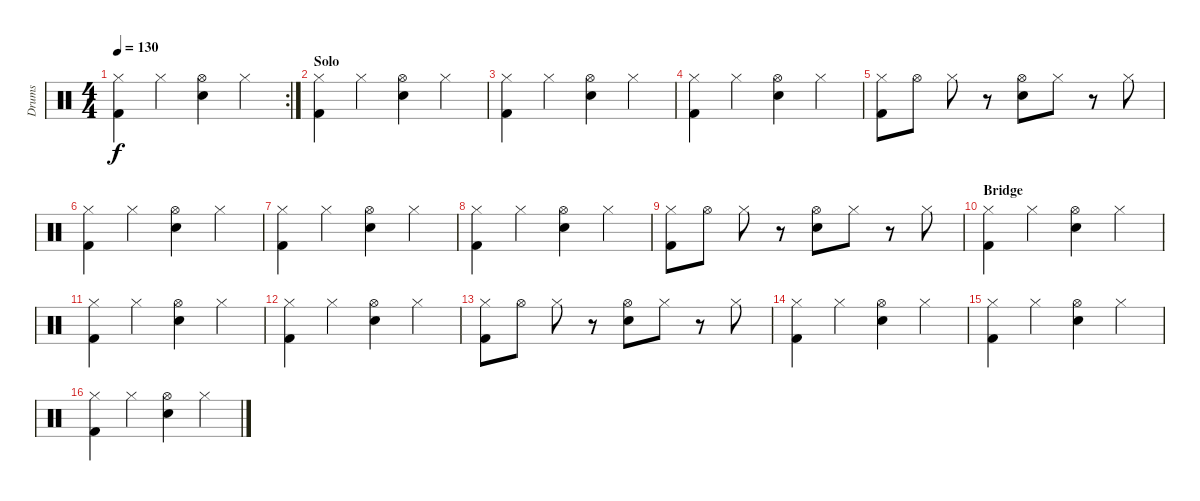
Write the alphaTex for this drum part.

\track ("Drums" "Drums") {instrument percussion}
\staff {score}
\articulation defaults
\rc 2
\ts (4 4)
\tempo 130
\clef neutral
\ks c
("Kick (hit) 2" "Hi-Hat (closed)").4{dy f} "Hi-Hat (closed)".4 ("Hi-Hat (open)" "Snare (hit) 2").4 "Hi-Hat (closed)".4 |
\section ("" "Solo")
("Kick (hit) 2" "Hi-Hat (closed)").4 "Hi-Hat (closed)".4 ("Hi-Hat (open)" "Snare (hit) 2").4 "Hi-Hat (closed)".4 |
("Kick (hit) 2" "Hi-Hat (closed)").4 "Hi-Hat (closed)".4 ("Hi-Hat (open)" "Snare (hit) 2").4 "Hi-Hat (closed)".4 |
("Kick (hit) 2" "Hi-Hat (closed)").4 "Hi-Hat (closed)".4 ("Hi-Hat (open)" "Snare (hit) 2").4 "Hi-Hat (closed)".4 |
("Kick (hit) 2" "Hi-Hat (closed)").8 "Hi-Hat (open)".8 "Hi-Hat (closed)".8 r.8 ("Hi-Hat (open)" "Snare (hit) 2").8 "Hi-Hat (closed)".8 r.8 "Hi-Hat (closed)".8 |
("Kick (hit) 2" "Hi-Hat (closed)").4 "Hi-Hat (closed)".4 ("Hi-Hat (open)" "Snare (hit) 2").4 "Hi-Hat (closed)".4 |
("Kick (hit) 2" "Hi-Hat (closed)").4 "Hi-Hat (closed)".4 ("Hi-Hat (open)" "Snare (hit) 2").4 "Hi-Hat (closed)".4 |
("Kick (hit) 2" "Hi-Hat (closed)").4 "Hi-Hat (closed)".4 ("Hi-Hat (open)" "Snare (hit) 2").4 "Hi-Hat (closed)".4 |
("Kick (hit) 2" "Hi-Hat (closed)").8 "Hi-Hat (open)".8 "Hi-Hat (closed)".8 r.8 ("Hi-Hat (open)" "Snare (hit) 2").8 "Hi-Hat (closed)".8 r.8 "Hi-Hat (closed)".8 |
\section ("" "Bridge")
("Kick (hit) 2" "Hi-Hat (closed)").4 "Hi-Hat (closed)".4 ("Hi-Hat (open)" "Snare (hit) 2").4 "Hi-Hat (closed)".4 |
("Kick (hit) 2" "Hi-Hat (closed)").4 "Hi-Hat (closed)".4 ("Hi-Hat (open)" "Snare (hit) 2").4 "Hi-Hat (closed)".4 |
("Kick (hit) 2" "Hi-Hat (closed)").4 "Hi-Hat (closed)".4 ("Hi-Hat (open)" "Snare (hit) 2").4 "Hi-Hat (closed)".4 |
("Kick (hit) 2" "Hi-Hat (closed)").8 "Hi-Hat (open)".8 "Hi-Hat (closed)".8 r.8 ("Hi-Hat (open)" "Snare (hit) 2").8 "Hi-Hat (closed)".8 r.8 "Hi-Hat (closed)".8 |
("Kick (hit) 2" "Hi-Hat (closed)").4 "Hi-Hat (closed)".4 ("Hi-Hat (open)" "Snare (hit) 2").4 "Hi-Hat (closed)".4 |
("Kick (hit) 2" "Hi-Hat (closed)").4 "Hi-Hat (closed)".4 ("Hi-Hat (open)" "Snare (hit) 2").4 "Hi-Hat (closed)".4 |
("Kick (hit) 2" "Hi-Hat (closed)").4 "Hi-Hat (closed)".4 ("Hi-Hat (open)" "Snare (hit) 2").4 "Hi-Hat (closed)".4
